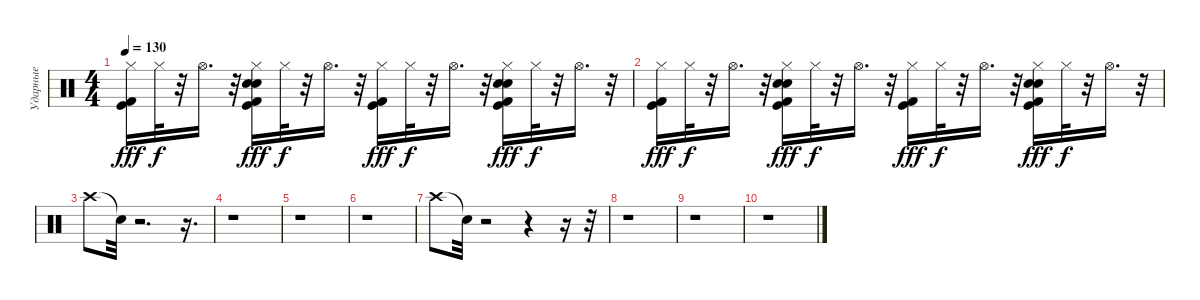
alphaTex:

\track ("Ударные" "Ударные") {instrument percussion}
\staff {score}
\articulation defaults
\ts (4 4)
\tempo 130
\clef neutral
\ks c
("Hi-Hat (closed)" "Kick (hit) 2" "Kick (hit)").16{dy fff} "Hi-Hat (closed)".32{dy f} r.32 "Hi-Hat (open)".16{d} r.32 ("Hi-Hat (closed)" "Kick (hit) 2" "Kick (hit)" "Hand Clap (hit)" "Hand Clap (hit)").16{dy fff} "Hi-Hat (closed)".32{dy f} r.32 "Hi-Hat (open)".16{d} r.32 ("Hi-Hat (closed)" "Kick (hit) 2" "Kick (hit)").16{dy fff} "Hi-Hat (closed)".32{dy f} r.32 "Hi-Hat (open)".16{d} r.32 ("Hi-Hat (closed)" "Kick (hit) 2" "Kick (hit)" "Hand Clap (hit)" "Hand Clap (hit)").16{dy fff} "Hi-Hat (closed)".32{dy f} r.32 "Hi-Hat (open)".16{d} r.32 |
("Hi-Hat (closed)" "Kick (hit) 2" "Kick (hit)").16{dy fff} "Hi-Hat (closed)".32{dy f} r.32 "Hi-Hat (open)".16{d} r.32 ("Hi-Hat (closed)" "Kick (hit) 2" "Kick (hit)" "Hand Clap (hit)" "Hand Clap (hit)").16{dy fff} "Hi-Hat (closed)".32{dy f} r.32 "Hi-Hat (open)".16{d} r.32 ("Hi-Hat (closed)" "Kick (hit) 2" "Kick (hit)").16{dy fff} "Hi-Hat (closed)".32{dy f} r.32 "Hi-Hat (open)".16{d} r.32 ("Hi-Hat (closed)" "Kick (hit) 2" "Kick (hit)" "Hand Clap (hit)" "Hand Clap (hit)").16{dy fff} "Hi-Hat (closed)".32{dy f} r.32 "Hi-Hat (open)".16{d} r.32 |
"Crash high (hit)".8 "Snare (hit)"{t}.32 r.2{d} r.16{d} |
r.1 |
r.1 |
r.1 |
"Crash high (hit)".8 "Snare (hit)"{t}.32 r.2 r.4 r.16 r.32 |
r.1 |
r.1 |
r.1
